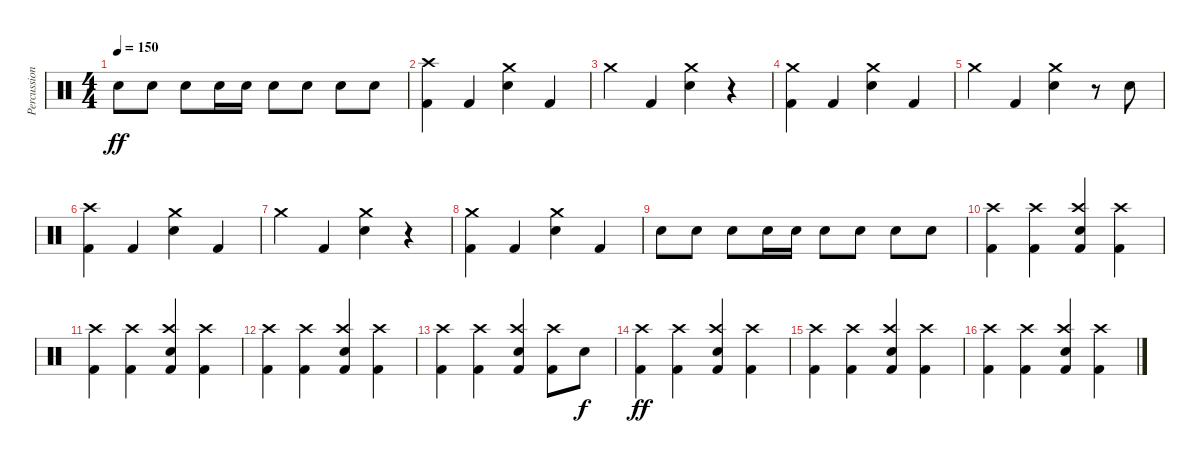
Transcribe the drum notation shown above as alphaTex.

\track ("Percussion" "Percussion") {instrument percussion}
\staff {score}
\articulation defaults
\ts (4 4)
\tempo 150
\clef neutral
\ks c "Snare (hit) 2".8{dy ff} "Snare (hit) 2".8 "Snare (hit) 2".8 "Snare (hit) 2".16 "Snare (hit) 2".16 "Snare (hit) 2".8 "Snare (hit) 2".8 "Snare (hit) 2".8 "Snare (hit) 2".8
|
("Crash high (hit)" "Kick (hit) 2").4 "Kick (hit) 2".4 ("Crash medium (hit)" "Snare (hit) 2").4 "Kick (hit) 2".4 |
"Crash medium (hit)".4 "Kick (hit) 2".4 ("Crash medium (hit)" "Snare (hit) 2").4 r.4 |
("Crash medium (hit)" "Kick (hit) 2").4 "Kick (hit) 2".4 ("Crash medium (hit)" "Snare (hit) 2").4 "Kick (hit) 2".4 |
"Crash medium (hit)".4 "Kick (hit) 2".4 ("Crash medium (hit)" "Snare (hit) 2").4 r.8 "Snare (hit) 2".8 |
("Crash high (hit)" "Kick (hit) 2").4 "Kick (hit) 2".4 ("Crash medium (hit)" "Snare (hit) 2").4 "Kick (hit) 2".4 |
"Crash medium (hit)".4 "Kick (hit) 2".4 ("Crash medium (hit)" "Snare (hit) 2").4 r.4 |
("Crash medium (hit)" "Kick (hit) 2").4 "Kick (hit) 2".4 ("Crash medium (hit)" "Snare (hit) 2").4 "Kick (hit) 2".4 |
"Snare (hit) 2".8 "Snare (hit) 2".8 "Snare (hit) 2".8 "Snare (hit) 2".16 "Snare (hit) 2".16 "Snare (hit) 2".8 "Snare (hit) 2".8 "Snare (hit) 2".8 "Snare (hit) 2".8 |
("Crash high (hit)" "Kick (hit) 2").4 ("Crash high (hit)" "Kick (hit) 2").4 ("Crash high (hit)" "Snare (hit) 2" "Kick (hit) 2").4 ("Crash high (hit)" "Kick (hit) 2").4 |
("Crash high (hit)" "Kick (hit) 2").4 ("Crash high (hit)" "Kick (hit) 2").4 ("Crash high (hit)" "Snare (hit) 2" "Kick (hit) 2").4 ("Crash high (hit)" "Kick (hit) 2").4 |
("Crash high (hit)" "Kick (hit) 2").4 ("Crash high (hit)" "Kick (hit) 2").4 ("Crash high (hit)" "Snare (hit) 2" "Kick (hit) 2").4 ("Crash high (hit)" "Kick (hit) 2").4 |
("Crash high (hit)" "Kick (hit) 2").4 ("Crash high (hit)" "Kick (hit) 2").4 ("Crash high (hit)" "Snare (hit) 2" "Kick (hit) 2").4 ("Crash high (hit)" "Kick (hit) 2").8 "Snare (hit) 2".8{dy f} |
("Crash high (hit)" "Kick (hit) 2").4{dy ff} ("Crash high (hit)" "Kick (hit) 2").4 ("Crash high (hit)" "Snare (hit) 2" "Kick (hit) 2").4 ("Crash high (hit)" "Kick (hit) 2").4 |
("Crash high (hit)" "Kick (hit) 2").4 ("Crash high (hit)" "Kick (hit) 2").4 ("Crash high (hit)" "Snare (hit) 2" "Kick (hit) 2").4 ("Crash high (hit)" "Kick (hit) 2").4 |
("Crash high (hit)" "Kick (hit) 2").4 ("Crash high (hit)" "Kick (hit) 2").4 ("Crash high (hit)" "Snare (hit) 2" "Kick (hit) 2").4 ("Crash high (hit)" "Kick (hit) 2").4
